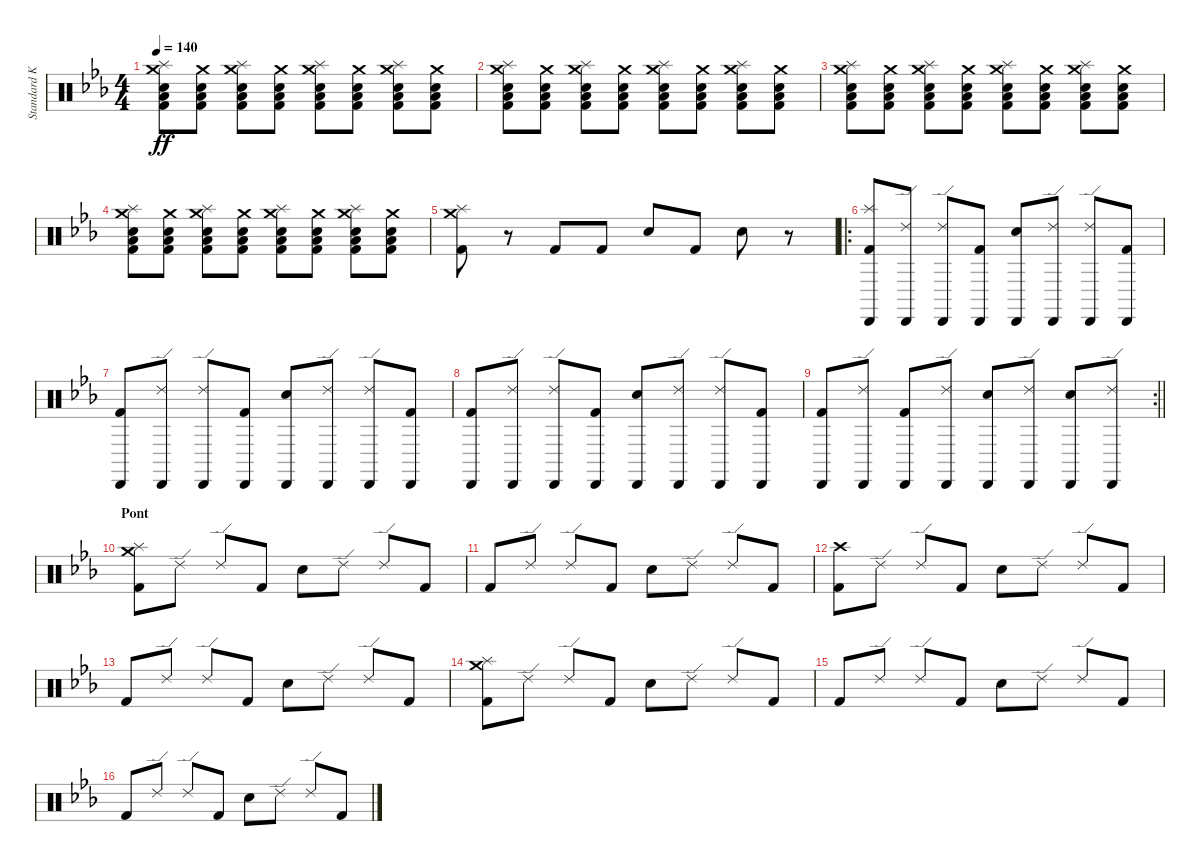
\track ("Standard Kit" "Standard K") {instrument percussion}
\staff {score}
\articulation defaults
\ts (4 4)
\tempo 140
\clef neutral
\ks eb
("Kick (hit) 2" "Low Floor Tom (hit)" "Electric Snare (hit)" "Splash (hit)" "Crash medium (hit)").8{dy ff} ("Kick (hit) 2" "Low Floor Tom (hit)" "Electric Snare (hit)" "Crash medium (hit)").8 ("Kick (hit) 2" "Low Floor Tom (hit)" "Electric Snare (hit)" "Splash (hit)" "Crash medium (hit)").8 ("Kick (hit) 2" "Low Floor Tom (hit)" "Electric Snare (hit)" "Crash medium (hit)").8 ("Kick (hit) 2" "Low Floor Tom (hit)" "Electric Snare (hit)" "Splash (hit)" "Crash medium (hit)").8 ("Kick (hit) 2" "Low Floor Tom (hit)" "Electric Snare (hit)" "Crash medium (hit)").8 ("Kick (hit) 2" "Low Floor Tom (hit)" "Electric Snare (hit)" "Splash (hit)" "Crash medium (hit)").8 ("Kick (hit) 2" "Low Floor Tom (hit)" "Electric Snare (hit)" "Crash medium (hit)").8 |
("Kick (hit) 2" "Low Floor Tom (hit)" "Electric Snare (hit)" "Splash (hit)" "Crash medium (hit)").8 ("Kick (hit) 2" "Low Floor Tom (hit)" "Electric Snare (hit)" "Crash medium (hit)").8 ("Kick (hit) 2" "Low Floor Tom (hit)" "Electric Snare (hit)" "Splash (hit)" "Crash medium (hit)").8 ("Kick (hit) 2" "Low Floor Tom (hit)" "Electric Snare (hit)" "Crash medium (hit)").8 ("Kick (hit) 2" "Low Floor Tom (hit)" "Electric Snare (hit)" "Splash (hit)" "Crash medium (hit)").8 ("Kick (hit) 2" "Low Floor Tom (hit)" "Electric Snare (hit)" "Crash medium (hit)").8 ("Kick (hit) 2" "Low Floor Tom (hit)" "Electric Snare (hit)" "Splash (hit)" "Crash medium (hit)").8 ("Kick (hit) 2" "Low Floor Tom (hit)" "Electric Snare (hit)" "Crash medium (hit)").8 |
("Kick (hit) 2" "Low Floor Tom (hit)" "Electric Snare (hit)" "Splash (hit)" "Crash medium (hit)").8 ("Kick (hit) 2" "Low Floor Tom (hit)" "Electric Snare (hit)" "Crash medium (hit)").8 ("Kick (hit) 2" "Low Floor Tom (hit)" "Electric Snare (hit)" "Splash (hit)" "Crash medium (hit)").8 ("Kick (hit) 2" "Low Floor Tom (hit)" "Electric Snare (hit)" "Crash medium (hit)").8 ("Kick (hit) 2" "Low Floor Tom (hit)" "Electric Snare (hit)" "Splash (hit)" "Crash medium (hit)").8 ("Kick (hit) 2" "Low Floor Tom (hit)" "Electric Snare (hit)" "Crash medium (hit)").8 ("Kick (hit) 2" "Low Floor Tom (hit)" "Electric Snare (hit)" "Splash (hit)" "Crash medium (hit)").8 ("Kick (hit) 2" "Low Floor Tom (hit)" "Electric Snare (hit)" "Crash medium (hit)").8 |
("Kick (hit) 2" "Low Floor Tom (hit)" "Electric Snare (hit)" "Splash (hit)" "Crash medium (hit)").8 ("Kick (hit) 2" "Low Floor Tom (hit)" "Electric Snare (hit)" "Crash medium (hit)").8 ("Kick (hit) 2" "Low Floor Tom (hit)" "Electric Snare (hit)" "Splash (hit)" "Crash medium (hit)").8 ("Kick (hit) 2" "Low Floor Tom (hit)" "Electric Snare (hit)" "Crash medium (hit)").8 ("Kick (hit) 2" "Low Floor Tom (hit)" "Electric Snare (hit)" "Splash (hit)" "Crash medium (hit)").8 ("Kick (hit) 2" "Low Floor Tom (hit)" "Electric Snare (hit)" "Crash medium (hit)").8 ("Kick (hit) 2" "Low Floor Tom (hit)" "Electric Snare (hit)" "Splash (hit)" "Crash medium (hit)").8 ("Kick (hit) 2" "Low Floor Tom (hit)" "Electric Snare (hit)" "Crash medium (hit)").8 |
("Kick (hit) 2" "Crash medium (hit)" "Splash (hit)").8 r.8 "Kick (hit) 2".8 "Kick (hit) 2".8 "Electric Snare (hit)".8 "Kick (hit) 2".8 "Electric Snare (hit)".8 r.8 |
\ro
("Kick (hit) 2" "Cabasa (hit)" "Splash (hit)").8 ("Cabasa (hit)" "Ride (edge) 2").8 ("Cabasa (hit)" "Ride (edge) 2").8 ("Kick (hit) 2" "Cabasa (hit)").8 ("Cabasa (hit)" "Snare (hit) 2").8 ("Cabasa (hit)" "Ride (edge) 2").8 ("Cabasa (hit)" "Ride (edge) 2").8 ("Kick (hit) 2" "Cabasa (hit)").8 |
("Kick (hit) 2" "Cabasa (hit)").8 ("Cabasa (hit)" "Ride (edge) 2").8 ("Cabasa (hit)" "Ride (edge) 2").8 ("Kick (hit) 2" "Cabasa (hit)").8 ("Cabasa (hit)" "Snare (hit) 2").8 ("Cabasa (hit)" "Ride (edge) 2").8 ("Cabasa (hit)" "Ride (edge) 2").8 ("Kick (hit) 2" "Cabasa (hit)").8 |
("Kick (hit) 2" "Cabasa (hit)").8 ("Cabasa (hit)" "Ride (edge) 2").8 ("Cabasa (hit)" "Ride (edge) 2").8 ("Kick (hit) 2" "Cabasa (hit)").8 ("Cabasa (hit)" "Snare (hit) 2").8 ("Cabasa (hit)" "Ride (edge) 2").8 ("Cabasa (hit)" "Ride (edge) 2").8 ("Kick (hit) 2" "Cabasa (hit)").8 |
\rc 2
\barLineRight lightlight
("Kick (hit) 2" "Cabasa (hit)").8 ("Cabasa (hit)" "Ride (edge) 2").8 ("Kick (hit) 2" "Cabasa (hit)").8 ("Cabasa (hit)" "Ride (edge) 2").8 ("Cabasa (hit)" "Snare (hit) 2").8 ("Cabasa (hit)" "Ride (edge) 2").8 ("Cabasa (hit)" "Snare (hit) 2").8 ("Cabasa (hit)" "Ride (edge) 2").8 |
\section ("" "Pont")
("Kick (hit) 2" "Crash medium (hit)" "Splash (hit)").8 "Ride (edge) 2".8 "Ride (edge) 2".8 "Kick (hit) 2".8 "Snare (hit) 2".8 "Ride (edge) 2".8 "Ride (edge) 2".8 "Kick (hit) 2".8 |
"Kick (hit) 2".8 "Ride (edge) 2".8 "Ride (edge) 2".8 "Kick (hit) 2".8 "Snare (hit) 2".8 "Ride (edge) 2".8 "Ride (edge) 2".8 "Kick (hit) 2".8 |
("Crash high (hit)" "Kick (hit) 2").8 "Ride (edge) 2".8 "Ride (edge) 2".8 "Kick (hit) 2".8 "Snare (hit) 2".8 "Ride (edge) 2".8 "Ride (edge) 2".8 "Kick (hit) 2".8 |
"Kick (hit) 2".8 "Ride (edge) 2".8 "Ride (edge) 2".8 "Kick (hit) 2".8 "Snare (hit) 2".8 "Ride (edge) 2".8 "Ride (edge) 2".8 "Kick (hit) 2".8 |
("Kick (hit) 2" "Crash medium (hit)" "Splash (hit)").8 "Ride (edge) 2".8 "Ride (edge) 2".8 "Kick (hit) 2".8 "Snare (hit) 2".8 "Ride (edge) 2".8 "Ride (edge) 2".8 "Kick (hit) 2".8 |
"Kick (hit) 2".8 "Ride (edge) 2".8 "Ride (edge) 2".8 "Kick (hit) 2".8 "Snare (hit) 2".8 "Ride (edge) 2".8 "Ride (edge) 2".8 "Kick (hit) 2".8 |
"Kick (hit) 2".8 "Ride (edge) 2".8 "Ride (edge) 2".8 "Kick (hit) 2".8 "Snare (hit) 2".8 "Ride (edge) 2".8 "Ride (edge) 2".8 "Kick (hit) 2".8
